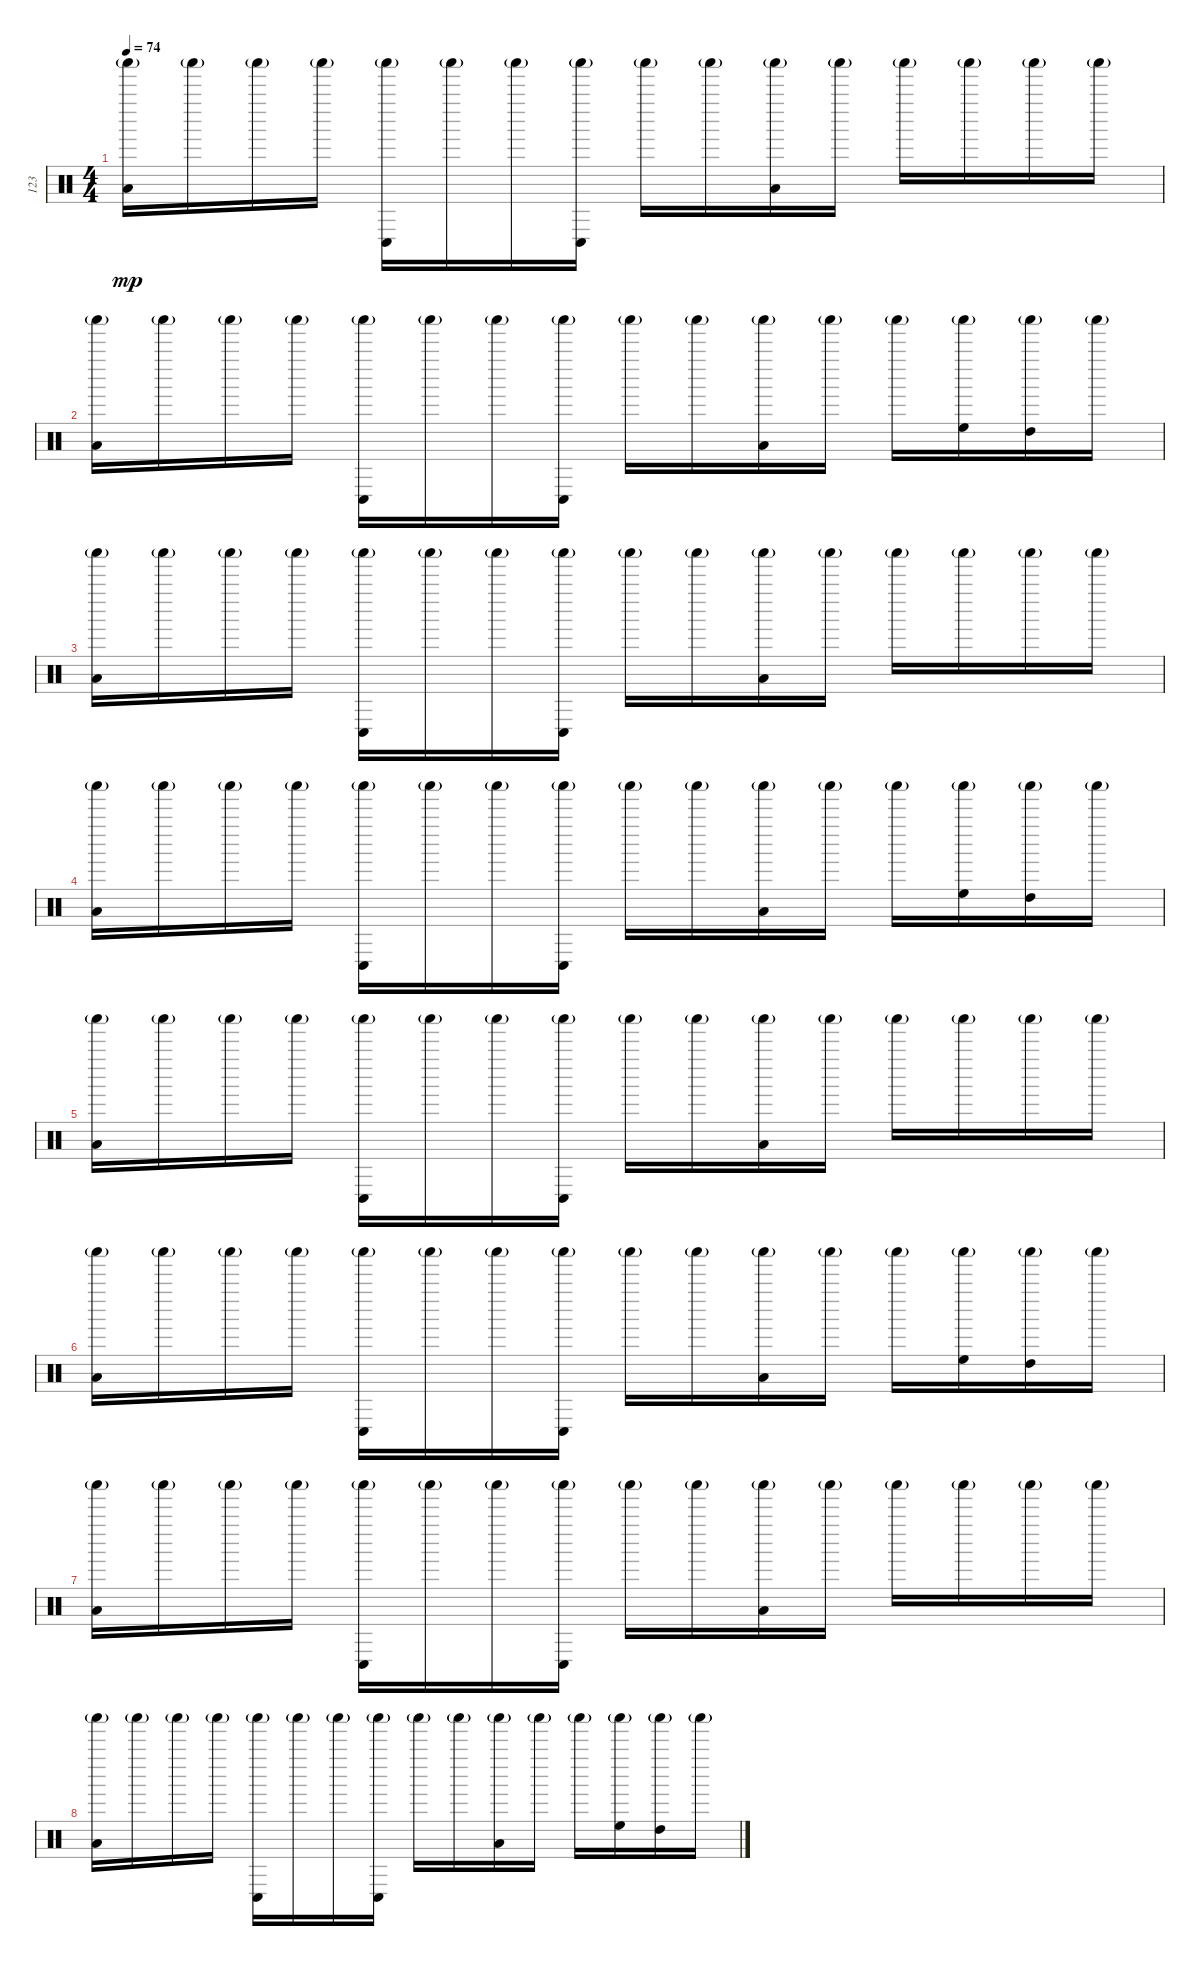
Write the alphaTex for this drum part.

\track ("123" "123") {instrument percussion}
\staff {score}
\articulation defaults
\ts (4 4)
\tempo 74
\clef neutral
\ks c
("Shaker (hit)"{g} "Low Floor Tom (hit)").16{dy mp} "Shaker (hit)"{g}.16 "Shaker (hit)"{g}.16 "Shaker (hit)"{g}.16 ("Shaker (hit)"{g} "Conga low (hit)").16 "Shaker (hit)"{g}.16 "Shaker (hit)"{g}.16 ("Shaker (hit)"{g} "Conga low (hit)").16 "Shaker (hit)"{g}.16 "Shaker (hit)"{g}.16 ("Shaker (hit)"{g} "Low Floor Tom (hit)").16 "Shaker (hit)"{g}.16 "Shaker (hit)"{g}.16 "Shaker (hit)"{g}.16 "Shaker (hit)"{g}.16 "Shaker (hit)"{g}.16 |
("Shaker (hit)"{g} "Low Floor Tom (hit)").16 "Shaker (hit)"{g}.16 "Shaker (hit)"{g}.16 "Shaker (hit)"{g}.16 ("Shaker (hit)"{g} "Conga low (hit)").16 "Shaker (hit)"{g}.16 "Shaker (hit)"{g}.16 ("Shaker (hit)"{g} "Conga low (hit)").16 "Shaker (hit)"{g}.16 "Shaker (hit)"{g}.16 ("Shaker (hit)"{g} "Low Floor Tom (hit)").16 "Shaker (hit)"{g}.16 "Shaker (hit)"{g}.16 ("Shaker (hit)"{g} "High Floor Tom (hit)").16 ("Shaker (hit)"{g} "High Tom (hit)").16 "Shaker (hit)"{g}.16 |
("Shaker (hit)"{g} "Low Floor Tom (hit)").16 "Shaker (hit)"{g}.16 "Shaker (hit)"{g}.16 "Shaker (hit)"{g}.16 ("Shaker (hit)"{g} "Conga low (hit)").16 "Shaker (hit)"{g}.16 "Shaker (hit)"{g}.16 ("Shaker (hit)"{g} "Conga low (hit)").16 "Shaker (hit)"{g}.16 "Shaker (hit)"{g}.16 ("Shaker (hit)"{g} "Low Floor Tom (hit)").16 "Shaker (hit)"{g}.16 "Shaker (hit)"{g}.16 "Shaker (hit)"{g}.16 "Shaker (hit)"{g}.16 "Shaker (hit)"{g}.16 |
("Shaker (hit)"{g} "Low Floor Tom (hit)").16 "Shaker (hit)"{g}.16 "Shaker (hit)"{g}.16 "Shaker (hit)"{g}.16 ("Shaker (hit)"{g} "Conga low (hit)").16 "Shaker (hit)"{g}.16 "Shaker (hit)"{g}.16 ("Shaker (hit)"{g} "Conga low (hit)").16 "Shaker (hit)"{g}.16 "Shaker (hit)"{g}.16 ("Shaker (hit)"{g} "Low Floor Tom (hit)").16 "Shaker (hit)"{g}.16 "Shaker (hit)"{g}.16 ("Shaker (hit)"{g} "High Floor Tom (hit)").16 ("Shaker (hit)"{g} "High Tom (hit)").16 "Shaker (hit)"{g}.16 |
("Shaker (hit)"{g} "Low Floor Tom (hit)").16 "Shaker (hit)"{g}.16 "Shaker (hit)"{g}.16 "Shaker (hit)"{g}.16 ("Shaker (hit)"{g} "Conga low (hit)").16 "Shaker (hit)"{g}.16 "Shaker (hit)"{g}.16 ("Shaker (hit)"{g} "Conga low (hit)").16 "Shaker (hit)"{g}.16 "Shaker (hit)"{g}.16 ("Shaker (hit)"{g} "Low Floor Tom (hit)").16 "Shaker (hit)"{g}.16 "Shaker (hit)"{g}.16 "Shaker (hit)"{g}.16 "Shaker (hit)"{g}.16 "Shaker (hit)"{g}.16 |
("Shaker (hit)"{g} "Low Floor Tom (hit)").16 "Shaker (hit)"{g}.16 "Shaker (hit)"{g}.16 "Shaker (hit)"{g}.16 ("Shaker (hit)"{g} "Conga low (hit)").16 "Shaker (hit)"{g}.16 "Shaker (hit)"{g}.16 ("Shaker (hit)"{g} "Conga low (hit)").16 "Shaker (hit)"{g}.16 "Shaker (hit)"{g}.16 ("Shaker (hit)"{g} "Low Floor Tom (hit)").16 "Shaker (hit)"{g}.16 "Shaker (hit)"{g}.16 ("Shaker (hit)"{g} "High Floor Tom (hit)").16 ("Shaker (hit)"{g} "High Tom (hit)").16 "Shaker (hit)"{g}.16 |
("Shaker (hit)"{g} "Low Floor Tom (hit)").16 "Shaker (hit)"{g}.16 "Shaker (hit)"{g}.16 "Shaker (hit)"{g}.16 ("Shaker (hit)"{g} "Conga low (hit)").16 "Shaker (hit)"{g}.16 "Shaker (hit)"{g}.16 ("Shaker (hit)"{g} "Conga low (hit)").16 "Shaker (hit)"{g}.16 "Shaker (hit)"{g}.16 ("Shaker (hit)"{g} "Low Floor Tom (hit)").16 "Shaker (hit)"{g}.16 "Shaker (hit)"{g}.16 "Shaker (hit)"{g}.16 "Shaker (hit)"{g}.16 "Shaker (hit)"{g}.16 |
("Shaker (hit)"{g} "Low Floor Tom (hit)").16 "Shaker (hit)"{g}.16 "Shaker (hit)"{g}.16 "Shaker (hit)"{g}.16 ("Shaker (hit)"{g} "Conga low (hit)").16 "Shaker (hit)"{g}.16 "Shaker (hit)"{g}.16 ("Shaker (hit)"{g} "Conga low (hit)").16 "Shaker (hit)"{g}.16 "Shaker (hit)"{g}.16 ("Shaker (hit)"{g} "Low Floor Tom (hit)").16 "Shaker (hit)"{g}.16 "Shaker (hit)"{g}.16 ("Shaker (hit)"{g} "High Floor Tom (hit)").16 ("Shaker (hit)"{g} "High Tom (hit)").16 "Shaker (hit)"{g}.16
